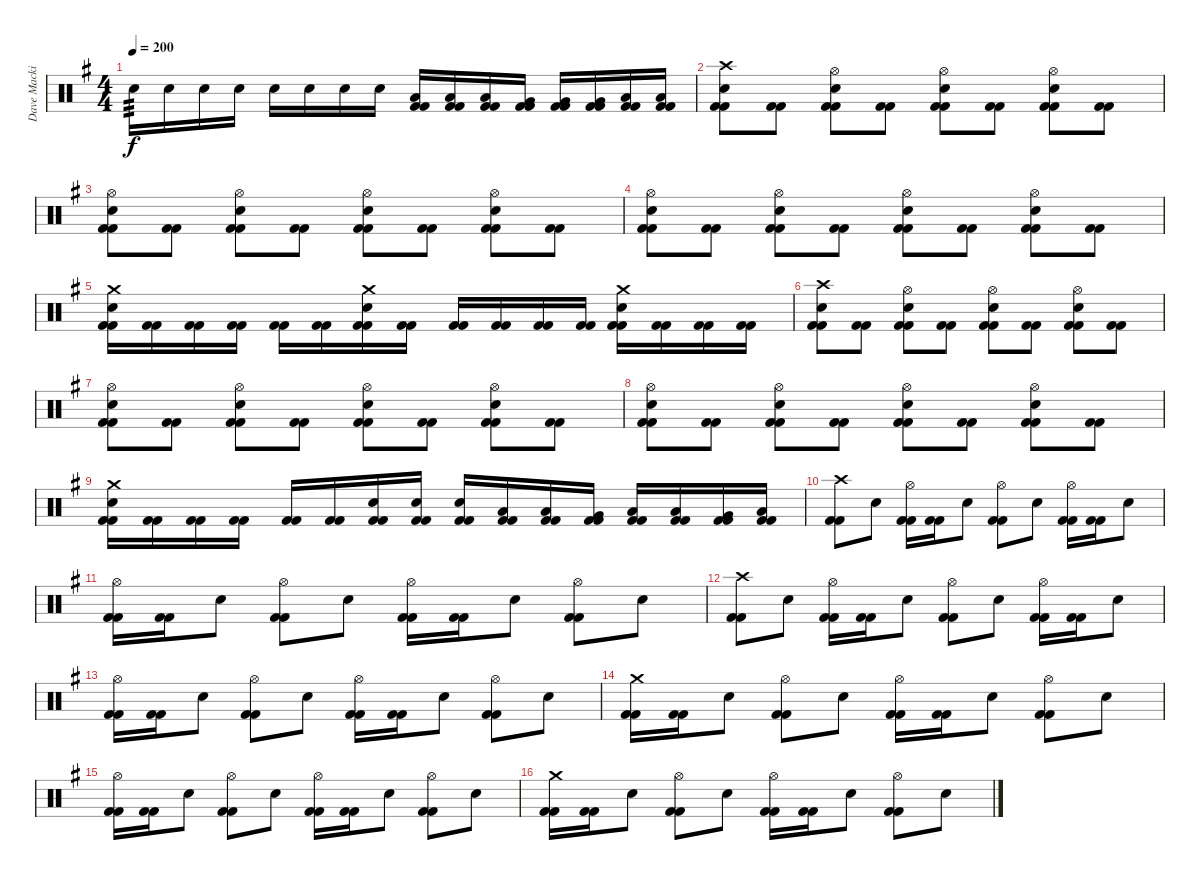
\track ("Dave Mackintosh" "Dave Macki") {instrument percussion}
\staff {score}
\articulation defaults
\ts (4 4)
\tempo 200
\clef neutral
\ks g "Electric Snare (hit)".16{tp 3 dy f} "Electric Snare (hit)".16 "Electric Snare (hit)".16 "Electric Snare (hit)".16 "Electric Snare (hit)".16 "Electric Snare (hit)".16 "Electric Snare (hit)".16 "Electric Snare (hit)".16
("Low Tom (hit)" "Kick (hit) 2" "Kick (hit) 2").16 ("Low Tom (hit)" "Kick (hit) 2" "Kick (hit) 2").16 ("Low Tom (hit)" "Kick (hit) 2" "Kick (hit) 2").16 ("Very Low Tom (hit)" "Kick (hit) 2" "Kick (hit) 2").16 ("Very Low Tom (hit)" "Kick (hit) 2" "Kick (hit) 2").16 ("Very Low Tom (hit)" "Kick (hit) 2" "Kick (hit) 2").16 ("Low Floor Tom (hit)" "Kick (hit) 2" "Kick (hit) 2").16 ("Low Floor Tom (hit)" "Kick (hit) 2" "Kick (hit) 2").16 |
("Crash high (hit)" "Electric Snare (hit)" "Kick (hit) 2" "Kick (hit) 2").8 ("Kick (hit) 2" "Kick (hit) 2").8 ("Hi-Hat (open)" "Electric Snare (hit)" "Kick (hit) 2" "Kick (hit) 2").8 ("Kick (hit) 2" "Kick (hit) 2").8 ("Hi-Hat (open)" "Electric Snare (hit)" "Kick (hit) 2" "Kick (hit) 2").8 ("Kick (hit) 2" "Kick (hit) 2").8 ("Hi-Hat (open)" "Electric Snare (hit)" "Kick (hit) 2" "Kick (hit) 2").8 ("Kick (hit) 2" "Kick (hit) 2").8 |
("Hi-Hat (open)" "Electric Snare (hit)" "Kick (hit) 2" "Kick (hit) 2").8 ("Kick (hit) 2" "Kick (hit) 2").8 ("Hi-Hat (open)" "Electric Snare (hit)" "Kick (hit) 2" "Kick (hit) 2").8 ("Kick (hit) 2" "Kick (hit) 2").8 ("Hi-Hat (open)" "Electric Snare (hit)" "Kick (hit) 2" "Kick (hit) 2").8 ("Kick (hit) 2" "Kick (hit) 2").8 ("Hi-Hat (open)" "Electric Snare (hit)" "Kick (hit) 2" "Kick (hit) 2").8 ("Kick (hit) 2" "Kick (hit) 2").8 |
("Hi-Hat (open)" "Electric Snare (hit)" "Kick (hit) 2" "Kick (hit) 2").8 ("Kick (hit) 2" "Kick (hit) 2").8 ("Hi-Hat (open)" "Electric Snare (hit)" "Kick (hit) 2" "Kick (hit) 2").8 ("Kick (hit) 2" "Kick (hit) 2").8 ("Hi-Hat (open)" "Electric Snare (hit)" "Kick (hit) 2" "Kick (hit) 2").8 ("Kick (hit) 2" "Kick (hit) 2").8 ("Hi-Hat (open)" "Electric Snare (hit)" "Kick (hit) 2" "Kick (hit) 2").8 ("Kick (hit) 2" "Kick (hit) 2").8 |
("Crash medium (hit)" "Electric Snare (hit)" "Kick (hit) 2" "Kick (hit) 2").16 ("Kick (hit) 2" "Kick (hit) 2").16 ("Kick (hit) 2" "Kick (hit) 2").16 ("Kick (hit) 2" "Kick (hit) 2").16 ("Kick (hit) 2" "Kick (hit) 2").16 ("Kick (hit) 2" "Kick (hit) 2").16 ("Crash medium (hit)" "Electric Snare (hit)" "Kick (hit) 2" "Kick (hit) 2").16 ("Kick (hit) 2" "Kick (hit) 2").16 ("Kick (hit) 2" "Kick (hit) 2").16 ("Kick (hit) 2" "Kick (hit) 2").16 ("Kick (hit) 2" "Kick (hit) 2").16 ("Kick (hit) 2" "Kick (hit) 2").16 ("Crash medium (hit)" "Electric Snare (hit)" "Kick (hit) 2" "Kick (hit) 2").16 ("Kick (hit) 2" "Kick (hit) 2").16 ("Kick (hit) 2" "Kick (hit) 2").16 ("Kick (hit) 2" "Kick (hit) 2").16 |
("Crash high (hit)" "Electric Snare (hit)" "Kick (hit) 2" "Kick (hit) 2").8 ("Kick (hit) 2" "Kick (hit) 2").8 ("Hi-Hat (open)" "Electric Snare (hit)" "Kick (hit) 2" "Kick (hit) 2").8 ("Kick (hit) 2" "Kick (hit) 2").8 ("Hi-Hat (open)" "Electric Snare (hit)" "Kick (hit) 2" "Kick (hit) 2").8 ("Kick (hit) 2" "Kick (hit) 2").8 ("Hi-Hat (open)" "Electric Snare (hit)" "Kick (hit) 2" "Kick (hit) 2").8 ("Kick (hit) 2" "Kick (hit) 2").8 |
("Hi-Hat (open)" "Electric Snare (hit)" "Kick (hit) 2" "Kick (hit) 2").8 ("Kick (hit) 2" "Kick (hit) 2").8 ("Hi-Hat (open)" "Electric Snare (hit)" "Kick (hit) 2" "Kick (hit) 2").8 ("Kick (hit) 2" "Kick (hit) 2").8 ("Hi-Hat (open)" "Electric Snare (hit)" "Kick (hit) 2" "Kick (hit) 2").8 ("Kick (hit) 2" "Kick (hit) 2").8 ("Hi-Hat (open)" "Electric Snare (hit)" "Kick (hit) 2" "Kick (hit) 2").8 ("Kick (hit) 2" "Kick (hit) 2").8 |
("Hi-Hat (open)" "Electric Snare (hit)" "Kick (hit) 2" "Kick (hit) 2").8 ("Kick (hit) 2" "Kick (hit) 2").8 ("Hi-Hat (open)" "Electric Snare (hit)" "Kick (hit) 2" "Kick (hit) 2").8 ("Kick (hit) 2" "Kick (hit) 2").8 ("Hi-Hat (open)" "Electric Snare (hit)" "Kick (hit) 2" "Kick (hit) 2").8 ("Kick (hit) 2" "Kick (hit) 2").8 ("Hi-Hat (open)" "Electric Snare (hit)" "Kick (hit) 2" "Kick (hit) 2").8 ("Kick (hit) 2" "Kick (hit) 2").8 |
("Crash medium (hit)" "Electric Snare (hit)" "Kick (hit) 2" "Kick (hit) 2").16 ("Kick (hit) 2" "Kick (hit) 2").16 ("Kick (hit) 2" "Kick (hit) 2").16 ("Kick (hit) 2" "Kick (hit) 2").16 ("Kick (hit) 2" "Kick (hit) 2").16 ("Kick (hit) 2" "Kick (hit) 2").16 ("Electric Snare (hit)" "Kick (hit) 2" "Kick (hit) 2").16 ("Electric Snare (hit)" "Kick (hit) 2" "Kick (hit) 2").16 ("Electric Snare (hit)" "Kick (hit) 2" "Kick (hit) 2").16 ("Low Tom (hit)" "Kick (hit) 2" "Kick (hit) 2").16 ("Low Tom (hit)" "Kick (hit) 2" "Kick (hit) 2").16 ("Very Low Tom (hit)" "Kick (hit) 2" "Kick (hit) 2").16 ("Low Floor Tom (hit)" "Kick (hit) 2" "Kick (hit) 2").16 ("Low Tom (hit)" "Kick (hit) 2" "Kick (hit) 2").16 ("Very Low Tom (hit)" "Kick (hit) 2" "Kick (hit) 2").16 ("Low Floor Tom (hit)" "Kick (hit) 2" "Kick (hit) 2").16 |
("Crash high (hit)" "Kick (hit) 2" "Kick (hit) 2").8 "Electric Snare (hit)".8 ("Hi-Hat (open)" "Kick (hit) 2" "Kick (hit) 2").16 ("Kick (hit) 2" "Kick (hit) 2").16 "Electric Snare (hit)".8 ("Hi-Hat (open)" "Kick (hit) 2" "Kick (hit) 2").8 "Electric Snare (hit)".8 ("Hi-Hat (open)" "Kick (hit) 2" "Kick (hit) 2").16 ("Kick (hit) 2" "Kick (hit) 2").16 "Electric Snare (hit)".8 |
("Hi-Hat (open)" "Kick (hit) 2" "Kick (hit) 2").16 ("Kick (hit) 2" "Kick (hit) 2").16 "Electric Snare (hit)".8 ("Hi-Hat (open)" "Kick (hit) 2" "Kick (hit) 2").8 "Electric Snare (hit)".8 ("Hi-Hat (open)" "Kick (hit) 2" "Kick (hit) 2").16 ("Kick (hit) 2" "Kick (hit) 2").16 "Electric Snare (hit)".8 ("Hi-Hat (open)" "Kick (hit) 2" "Kick (hit) 2").8 "Electric Snare (hit)".8 |
("Crash high (hit)" "Kick (hit) 2" "Kick (hit) 2").8 "Electric Snare (hit)".8 ("Hi-Hat (open)" "Kick (hit) 2" "Kick (hit) 2").16 ("Kick (hit) 2" "Kick (hit) 2").16 "Electric Snare (hit)".8 ("Hi-Hat (open)" "Kick (hit) 2" "Kick (hit) 2").8 "Electric Snare (hit)".8 ("Hi-Hat (open)" "Kick (hit) 2" "Kick (hit) 2").16 ("Kick (hit) 2" "Kick (hit) 2").16 "Electric Snare (hit)".8 |
("Hi-Hat (open)" "Kick (hit) 2" "Kick (hit) 2").16 ("Kick (hit) 2" "Kick (hit) 2").16 "Electric Snare (hit)".8 ("Hi-Hat (open)" "Kick (hit) 2" "Kick (hit) 2").8 "Electric Snare (hit)".8 ("Hi-Hat (open)" "Kick (hit) 2" "Kick (hit) 2").16 ("Kick (hit) 2" "Kick (hit) 2").16 "Electric Snare (hit)".8 ("Hi-Hat (open)" "Kick (hit) 2" "Kick (hit) 2").8 "Electric Snare (hit)".8 |
("Crash medium (hit)" "Kick (hit) 2" "Kick (hit) 2").16 ("Kick (hit) 2" "Kick (hit) 2").16 "Electric Snare (hit)".8 ("Hi-Hat (open)" "Kick (hit) 2" "Kick (hit) 2").8 "Electric Snare (hit)".8 ("Hi-Hat (open)" "Kick (hit) 2" "Kick (hit) 2").16 ("Kick (hit) 2" "Kick (hit) 2").16 "Electric Snare (hit)".8 ("Hi-Hat (open)" "Kick (hit) 2" "Kick (hit) 2").8 "Electric Snare (hit)".8 |
("Hi-Hat (open)" "Kick (hit) 2" "Kick (hit) 2").16 ("Kick (hit) 2" "Kick (hit) 2").16 "Electric Snare (hit)".8 ("Hi-Hat (open)" "Kick (hit) 2" "Kick (hit) 2").8 "Electric Snare (hit)".8 ("Hi-Hat (open)" "Kick (hit) 2" "Kick (hit) 2").16 ("Kick (hit) 2" "Kick (hit) 2").16 "Electric Snare (hit)".8 ("Hi-Hat (open)" "Kick (hit) 2" "Kick (hit) 2").8 "Electric Snare (hit)".8 |
("Crash medium (hit)" "Kick (hit) 2" "Kick (hit) 2").16 ("Kick (hit) 2" "Kick (hit) 2").16 "Electric Snare (hit)".8 ("Hi-Hat (open)" "Kick (hit) 2" "Kick (hit) 2").8 "Electric Snare (hit)".8 ("Hi-Hat (open)" "Kick (hit) 2" "Kick (hit) 2").16 ("Kick (hit) 2" "Kick (hit) 2").16 "Electric Snare (hit)".8 ("Hi-Hat (open)" "Kick (hit) 2" "Kick (hit) 2").8 "Electric Snare (hit)".8
